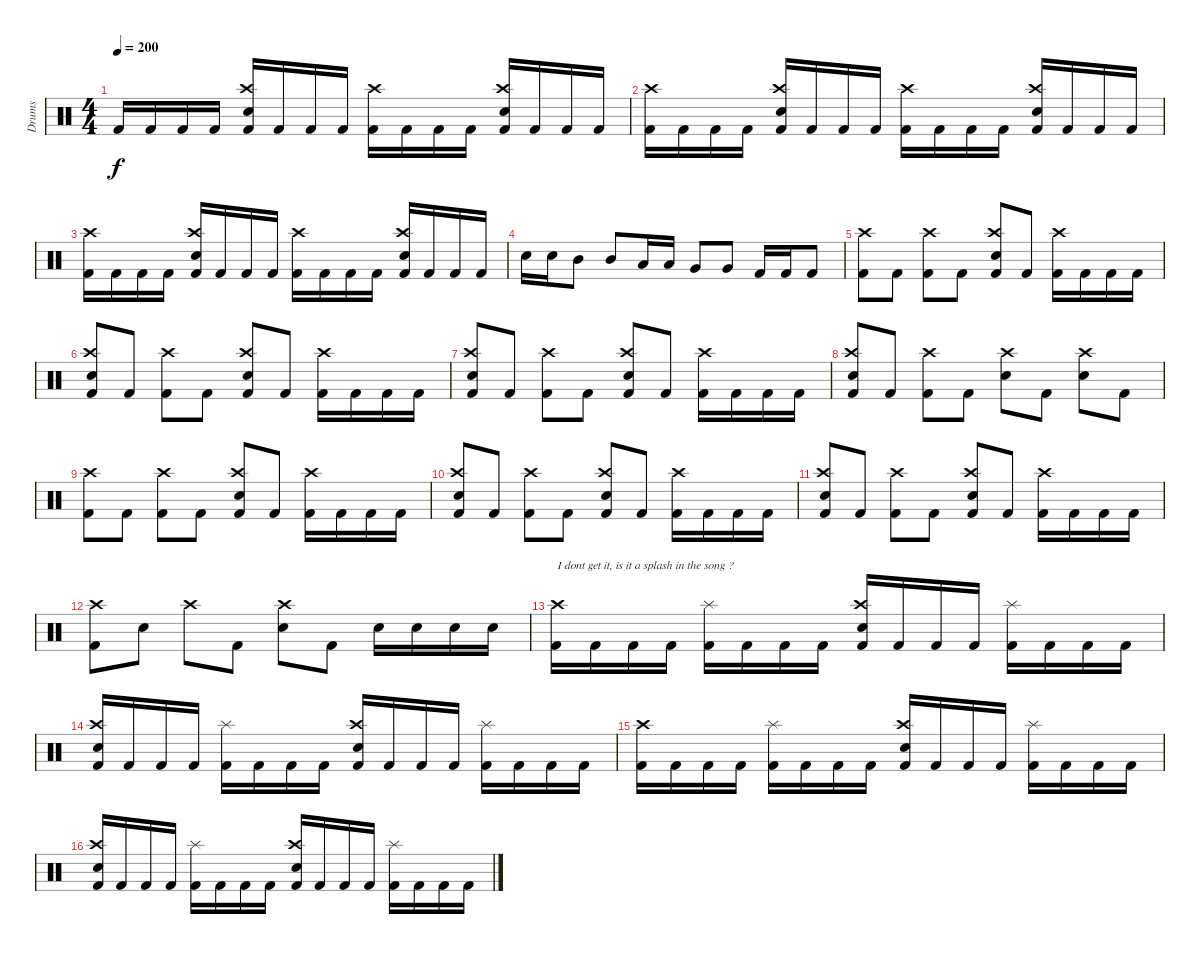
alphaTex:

\track ("Drums" "Drums") {instrument percussion}
\staff {score}
\articulation defaults
\ts (4 4)
\tempo 200
\clef neutral
\ks c "Kick (hit) 2".16{dy f} "Kick (hit) 2".16 "Kick (hit) 2".16 "Kick (hit) 2".16
("Crash high (hit)" "Snare (hit) 2" "Kick (hit) 2").16 "Kick (hit) 2".16 "Kick (hit) 2".16 "Kick (hit) 2".16 ("Crash high (hit)" "Kick (hit) 2").16 "Kick (hit) 2".16 "Kick (hit) 2".16 "Kick (hit) 2".16 ("Crash high (hit)" "Snare (hit) 2" "Kick (hit) 2").16 "Kick (hit) 2".16 "Kick (hit) 2".16 "Kick (hit) 2".16 |
("Crash high (hit)" "Kick (hit) 2").16 "Kick (hit) 2".16 "Kick (hit) 2".16 "Kick (hit) 2".16 ("Crash high (hit)" "Snare (hit) 2" "Kick (hit) 2").16 "Kick (hit) 2".16 "Kick (hit) 2".16 "Kick (hit) 2".16 ("Crash high (hit)" "Kick (hit) 2").16 "Kick (hit) 2".16 "Kick (hit) 2".16 "Kick (hit) 2".16 ("Crash high (hit)" "Snare (hit) 2" "Kick (hit) 2").16 "Kick (hit) 2".16 "Kick (hit) 2".16 "Kick (hit) 2".16 |
("Crash high (hit)" "Kick (hit) 2").16 "Kick (hit) 2".16 "Kick (hit) 2".16 "Kick (hit) 2".16 ("Crash high (hit)" "Snare (hit) 2" "Kick (hit) 2").16 "Kick (hit) 2".16 "Kick (hit) 2".16 "Kick (hit) 2".16 ("Crash high (hit)" "Kick (hit) 2").16 "Kick (hit) 2".16 "Kick (hit) 2".16 "Kick (hit) 2".16 ("Crash high (hit)" "Snare (hit) 2" "Kick (hit) 2").16 "Kick (hit) 2".16 "Kick (hit) 2".16 "Kick (hit) 2".16 |
"Snare (hit) 2".16 "Snare (hit) 2".16 "Mid Tom (hit)".8 "Mid Tom (hit)".8 "Low Tom (hit)".16 "Low Tom (hit)".16 "Very Low Tom (hit)".8 "Very Low Tom (hit)".8 "Kick (hit) 2".16 "Kick (hit) 2".16 "Kick (hit) 2".8 |
("Crash high (hit)" "Kick (hit) 2").8 "Kick (hit) 2".8 ("Crash high (hit)" "Kick (hit) 2").8 "Kick (hit) 2".8 ("Crash high (hit)" "Snare (hit) 2" "Kick (hit) 2").8 "Kick (hit) 2".8 ("Crash high (hit)" "Kick (hit) 2").16 "Kick (hit) 2".16 "Kick (hit) 2".16 "Kick (hit) 2".16 |
("Crash high (hit)" "Snare (hit) 2" "Kick (hit) 2").8 "Kick (hit) 2".8 ("Crash high (hit)" "Kick (hit) 2").8 "Kick (hit) 2".8 ("Crash high (hit)" "Snare (hit) 2" "Kick (hit) 2").8 "Kick (hit) 2".8 ("Crash high (hit)" "Kick (hit) 2").16 "Kick (hit) 2".16 "Kick (hit) 2".16 "Kick (hit) 2".16 |
("Crash high (hit)" "Snare (hit) 2" "Kick (hit) 2").8 "Kick (hit) 2".8 ("Crash high (hit)" "Kick (hit) 2").8 "Kick (hit) 2".8 ("Crash high (hit)" "Snare (hit) 2" "Kick (hit) 2").8 "Kick (hit) 2".8 ("Crash high (hit)" "Kick (hit) 2").16 "Kick (hit) 2".16 "Kick (hit) 2".16 "Kick (hit) 2".16 |
("Crash high (hit)" "Snare (hit) 2" "Kick (hit) 2").8 "Kick (hit) 2".8 ("Crash high (hit)" "Kick (hit) 2").8 "Kick (hit) 2".8 ("Crash high (hit)" "Snare (hit) 2").8 "Kick (hit) 2".8 ("Crash high (hit)" "Snare (hit) 2").8 "Kick (hit) 2".8 |
("Crash high (hit)" "Kick (hit) 2").8 "Kick (hit) 2".8 ("Crash high (hit)" "Kick (hit) 2").8 "Kick (hit) 2".8 ("Crash high (hit)" "Snare (hit) 2" "Kick (hit) 2").8 "Kick (hit) 2".8 ("Crash high (hit)" "Kick (hit) 2").16 "Kick (hit) 2".16 "Kick (hit) 2".16 "Kick (hit) 2".16 |
("Crash high (hit)" "Snare (hit) 2" "Kick (hit) 2").8 "Kick (hit) 2".8 ("Crash high (hit)" "Kick (hit) 2").8 "Kick (hit) 2".8 ("Crash high (hit)" "Snare (hit) 2" "Kick (hit) 2").8 "Kick (hit) 2".8 ("Crash high (hit)" "Kick (hit) 2").16 "Kick (hit) 2".16 "Kick (hit) 2".16 "Kick (hit) 2".16 |
("Crash high (hit)" "Snare (hit) 2" "Kick (hit) 2").8 "Kick (hit) 2".8 ("Crash high (hit)" "Kick (hit) 2").8 "Kick (hit) 2".8 ("Crash high (hit)" "Snare (hit) 2" "Kick (hit) 2").8 "Kick (hit) 2".8 ("Crash high (hit)" "Kick (hit) 2").16 "Kick (hit) 2".16 "Kick (hit) 2".16 "Kick (hit) 2".16 |
("Crash high (hit)" "Kick (hit) 2").8 "Snare (hit) 2".8 "Crash high (hit)".8 "Kick (hit) 2".8 ("Crash high (hit)" "Snare (hit) 2").8 "Kick (hit) 2".8 "Snare (hit) 2".16 "Snare (hit) 2".16 "Snare (hit) 2".16 "Snare (hit) 2".16 |
("Crash high (hit)" "Kick (hit) 2").16{txt "I dont get it, is it a splash in the song ?"} "Kick (hit) 2".16 "Kick (hit) 2".16 "Kick (hit) 2".16 ("Splash (hit)" "Kick (hit) 2").16 "Kick (hit) 2".16 "Kick (hit) 2".16 "Kick (hit) 2".16 ("Crash high (hit)" "Snare (hit) 2" "Kick (hit) 2").16 "Kick (hit) 2".16 "Kick (hit) 2".16 "Kick (hit) 2".16 ("Splash (hit)" "Kick (hit) 2").16 "Kick (hit) 2".16 "Kick (hit) 2".16 "Kick (hit) 2".16 |
("Crash high (hit)" "Snare (hit) 2" "Kick (hit) 2").16 "Kick (hit) 2".16 "Kick (hit) 2".16 "Kick (hit) 2".16 ("Splash (hit)" "Kick (hit) 2").16 "Kick (hit) 2".16 "Kick (hit) 2".16 "Kick (hit) 2".16 ("Crash high (hit)" "Snare (hit) 2" "Kick (hit) 2").16 "Kick (hit) 2".16 "Kick (hit) 2".16 "Kick (hit) 2".16 ("Splash (hit)" "Kick (hit) 2").16 "Kick (hit) 2".16 "Kick (hit) 2".16 "Kick (hit) 2".16 |
("Crash high (hit)" "Kick (hit) 2").16 "Kick (hit) 2".16 "Kick (hit) 2".16 "Kick (hit) 2".16 ("Splash (hit)" "Kick (hit) 2").16 "Kick (hit) 2".16 "Kick (hit) 2".16 "Kick (hit) 2".16 ("Crash high (hit)" "Snare (hit) 2" "Kick (hit) 2").16 "Kick (hit) 2".16 "Kick (hit) 2".16 "Kick (hit) 2".16 ("Splash (hit)" "Kick (hit) 2").16 "Kick (hit) 2".16 "Kick (hit) 2".16 "Kick (hit) 2".16 |
("Crash high (hit)" "Snare (hit) 2" "Kick (hit) 2").16 "Kick (hit) 2".16 "Kick (hit) 2".16 "Kick (hit) 2".16 ("Splash (hit)" "Kick (hit) 2").16 "Kick (hit) 2".16 "Kick (hit) 2".16 "Kick (hit) 2".16 ("Crash high (hit)" "Snare (hit) 2" "Kick (hit) 2").16 "Kick (hit) 2".16 "Kick (hit) 2".16 "Kick (hit) 2".16 ("Splash (hit)" "Kick (hit) 2").16 "Kick (hit) 2".16 "Kick (hit) 2".16 "Kick (hit) 2".16
